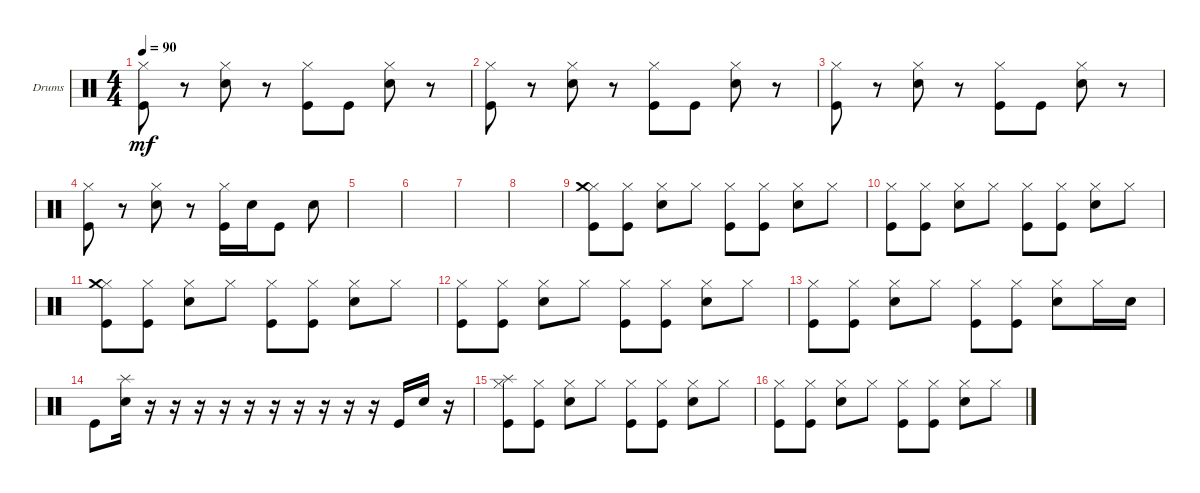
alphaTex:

\defaultSystemsLayout 4
\bracketExtendMode groupsimilarinstruments
\firstSystemTrackNameOrientation horizontal
\otherSystemsTrackNameOrientation horizontal
\track ("Drumkit" "Drums") {instrument percussion}
\staff {score}
\articulation defaults
\ts (4 4)
\tempo 90
\clef neutral
\ks c
("Kick (hit)" "Hi-Hat (closed)").8{dy mf} r.8 ("Snare (hit) 2" "Hi-Hat (closed)").8 r.8 ("Kick (hit)" "Hi-Hat (closed)").8 "Kick (hit)".8 ("Snare (hit) 2" "Hi-Hat (closed)").8 r.8 |
("Kick (hit)" "Hi-Hat (closed)").8 r.8 ("Snare (hit) 2" "Hi-Hat (closed)").8 r.8 ("Kick (hit)" "Hi-Hat (closed)").8 "Kick (hit)".8 ("Snare (hit) 2" "Hi-Hat (closed)").8 r.8 |
("Kick (hit)" "Hi-Hat (closed)").8 r.8 ("Snare (hit) 2" "Hi-Hat (closed)").8 r.8 ("Kick (hit)" "Hi-Hat (closed)").8 "Kick (hit)".8 ("Snare (hit) 2" "Hi-Hat (closed)").8 r.8 |
("Kick (hit)" "Hi-Hat (closed)").8 r.8 ("Snare (hit) 2" "Hi-Hat (closed)").8 r.8 ("Kick (hit)" "Hi-Hat (closed)").16 "Snare (hit) 2".16 "Kick (hit)".8 "Snare (hit) 2".8 |
|
|
|
|
("Kick (hit)" "Hi-Hat (closed)" "Crash medium (hit)").8 ("Kick (hit)" "Hi-Hat (closed)").8 ("Hi-Hat (closed)" "Snare (hit) 2").8 "Hi-Hat (closed)".8 ("Hi-Hat (closed)" "Kick (hit)").8 ("Hi-Hat (closed)" "Kick (hit)").8 ("Hi-Hat (closed)" "Snare (hit) 2").8 "Hi-Hat (closed)".8 |
("Kick (hit)" "Hi-Hat (closed)").8 ("Kick (hit)" "Hi-Hat (closed)").8 ("Hi-Hat (closed)" "Snare (hit) 2").8 "Hi-Hat (closed)".8 ("Hi-Hat (closed)" "Kick (hit)").8 ("Hi-Hat (closed)" "Kick (hit)").8 ("Hi-Hat (closed)" "Snare (hit) 2").8 "Hi-Hat (closed)".8 |
("Kick (hit)" "Hi-Hat (closed)" "Crash medium (hit)").8 ("Kick (hit)" "Hi-Hat (closed)").8 ("Hi-Hat (closed)" "Snare (hit) 2").8 "Hi-Hat (closed)".8 ("Hi-Hat (closed)" "Kick (hit)").8 ("Hi-Hat (closed)" "Kick (hit)").8 ("Hi-Hat (closed)" "Snare (hit) 2").8 "Hi-Hat (closed)".8 |
("Kick (hit)" "Hi-Hat (closed)").8 ("Kick (hit)" "Hi-Hat (closed)").8 ("Hi-Hat (closed)" "Snare (hit) 2").8 "Hi-Hat (closed)".8 ("Hi-Hat (closed)" "Kick (hit)").8 ("Hi-Hat (closed)" "Kick (hit)").8 ("Hi-Hat (closed)" "Snare (hit) 2").8 "Hi-Hat (closed)".8 |
("Kick (hit)" "Hi-Hat (closed)").8 ("Kick (hit)" "Hi-Hat (closed)").8 ("Hi-Hat (closed)" "Snare (hit) 2").8 "Hi-Hat (closed)".8 ("Hi-Hat (closed)" "Kick (hit)").8 ("Hi-Hat (closed)" "Kick (hit)").8 ("Hi-Hat (closed)" "Snare (hit) 2").8 "Hi-Hat (closed)".16 "Snare (hit) 2".16 |
"Kick (hit)".8 ("Snare (hit) 2" "Splash (hit)").16 r.16 r.16 r.16 r.16 r.16 r.16 r.16 r.16 r.16 r.16 "Kick (hit)".16 "Snare (hit) 2".16 r.16 |
("Kick (hit)" "Hi-Hat (closed)" "Splash (hit)").8 ("Kick (hit)" "Hi-Hat (closed)").8 ("Hi-Hat (closed)" "Snare (hit) 2").8 "Hi-Hat (closed)".8 ("Hi-Hat (closed)" "Kick (hit)").8 ("Hi-Hat (closed)" "Kick (hit)").8 ("Hi-Hat (closed)" "Snare (hit) 2").8 "Hi-Hat (closed)".8 |
("Kick (hit)" "Hi-Hat (closed)").8 ("Kick (hit)" "Hi-Hat (closed)").8 ("Hi-Hat (closed)" "Snare (hit) 2").8 "Hi-Hat (closed)".8 ("Hi-Hat (closed)" "Kick (hit)").8 ("Hi-Hat (closed)" "Kick (hit)").8 ("Hi-Hat (closed)" "Snare (hit) 2").8 "Hi-Hat (closed)".8
